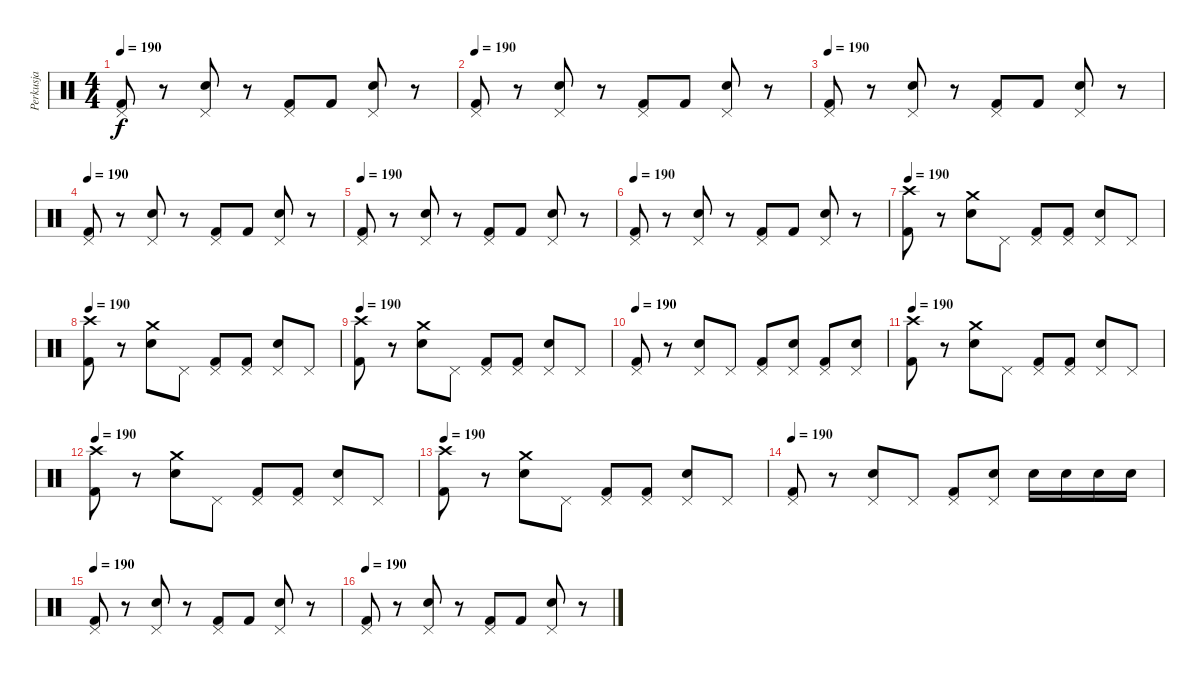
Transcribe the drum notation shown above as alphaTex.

\track ("Perkusja" "Perkusja") {instrument percussion}
\staff {score}
\articulation defaults
\ts (4 4)
\tempo 190
\clef neutral
\ks c
("Pedal Hi-Hat (hit)" "Kick (hit) 2").8{dy f} r.8 ("Pedal Hi-Hat (hit)" "Snare (hit) 2").8 r.8 ("Pedal Hi-Hat (hit)" "Kick (hit) 2").8 "Kick (hit) 2".8 ("Pedal Hi-Hat (hit)" "Snare (hit) 2").8 r.8 |
\tempo 190
("Pedal Hi-Hat (hit)" "Kick (hit) 2").8 r.8 ("Pedal Hi-Hat (hit)" "Snare (hit) 2").8 r.8 ("Pedal Hi-Hat (hit)" "Kick (hit) 2").8 "Kick (hit) 2".8 ("Pedal Hi-Hat (hit)" "Snare (hit) 2").8 r.8 |
\tempo 190
("Pedal Hi-Hat (hit)" "Kick (hit) 2").8 r.8 ("Pedal Hi-Hat (hit)" "Snare (hit) 2").8 r.8 ("Pedal Hi-Hat (hit)" "Kick (hit) 2").8 "Kick (hit) 2".8 ("Pedal Hi-Hat (hit)" "Snare (hit) 2").8 r.8 |
\tempo 190
("Pedal Hi-Hat (hit)" "Kick (hit) 2").8 r.8 ("Pedal Hi-Hat (hit)" "Snare (hit) 2").8 r.8 ("Pedal Hi-Hat (hit)" "Kick (hit) 2").8 "Kick (hit) 2".8 ("Pedal Hi-Hat (hit)" "Snare (hit) 2").8 r.8 |
\tempo 190
("Pedal Hi-Hat (hit)" "Kick (hit) 2").8 r.8 ("Pedal Hi-Hat (hit)" "Snare (hit) 2").8 r.8 ("Pedal Hi-Hat (hit)" "Kick (hit) 2").8 "Kick (hit) 2".8 ("Pedal Hi-Hat (hit)" "Snare (hit) 2").8 r.8 |
\tempo 190
("Pedal Hi-Hat (hit)" "Kick (hit) 2").8 r.8 ("Pedal Hi-Hat (hit)" "Snare (hit) 2").8 r.8 ("Pedal Hi-Hat (hit)" "Kick (hit) 2").8 "Kick (hit) 2".8 ("Pedal Hi-Hat (hit)" "Snare (hit) 2").8 r.8 |
\tempo 190
("Crash high (hit)" "Kick (hit) 2").8 r.8 ("Crash medium (hit)" "Snare (hit) 2").8 "Pedal Hi-Hat (hit)".8 ("Pedal Hi-Hat (hit)" "Kick (hit) 2").8 ("Pedal Hi-Hat (hit)" "Kick (hit) 2").8 ("Pedal Hi-Hat (hit)" "Snare (hit) 2").8 "Pedal Hi-Hat (hit)".8 |
\tempo 190
("Crash high (hit)" "Kick (hit) 2").8 r.8 ("Crash medium (hit)" "Snare (hit) 2").8 "Pedal Hi-Hat (hit)".8 ("Pedal Hi-Hat (hit)" "Kick (hit) 2").8 ("Pedal Hi-Hat (hit)" "Kick (hit) 2").8 ("Pedal Hi-Hat (hit)" "Snare (hit) 2").8 "Pedal Hi-Hat (hit)".8 |
\tempo 190
("Crash high (hit)" "Kick (hit) 2").8 r.8 ("Crash medium (hit)" "Snare (hit) 2").8 "Pedal Hi-Hat (hit)".8 ("Pedal Hi-Hat (hit)" "Kick (hit) 2").8 ("Pedal Hi-Hat (hit)" "Kick (hit) 2").8 ("Pedal Hi-Hat (hit)" "Snare (hit) 2").8 "Pedal Hi-Hat (hit)".8 |
\tempo 190
("Pedal Hi-Hat (hit)" "Kick (hit) 2").8 r.8 ("Pedal Hi-Hat (hit)" "Snare (hit) 2").8 "Pedal Hi-Hat (hit)".8 ("Pedal Hi-Hat (hit)" "Kick (hit) 2").8 ("Pedal Hi-Hat (hit)" "Snare (hit) 2").8 ("Pedal Hi-Hat (hit)" "Kick (hit) 2").8 ("Pedal Hi-Hat (hit)" "Snare (hit) 2").8 |
\tempo 190
("Crash high (hit)" "Kick (hit) 2").8 r.8 ("Crash medium (hit)" "Snare (hit) 2").8 "Pedal Hi-Hat (hit)".8 ("Pedal Hi-Hat (hit)" "Kick (hit) 2").8 ("Pedal Hi-Hat (hit)" "Kick (hit) 2").8 ("Pedal Hi-Hat (hit)" "Snare (hit) 2").8 "Pedal Hi-Hat (hit)".8 |
\tempo 190
("Crash high (hit)" "Kick (hit) 2").8 r.8 ("Crash medium (hit)" "Snare (hit) 2").8 "Pedal Hi-Hat (hit)".8 ("Pedal Hi-Hat (hit)" "Kick (hit) 2").8 ("Pedal Hi-Hat (hit)" "Kick (hit) 2").8 ("Pedal Hi-Hat (hit)" "Snare (hit) 2").8 "Pedal Hi-Hat (hit)".8 |
\tempo 190
("Crash high (hit)" "Kick (hit) 2").8 r.8 ("Crash medium (hit)" "Snare (hit) 2").8 "Pedal Hi-Hat (hit)".8 ("Pedal Hi-Hat (hit)" "Kick (hit) 2").8 ("Pedal Hi-Hat (hit)" "Kick (hit) 2").8 ("Pedal Hi-Hat (hit)" "Snare (hit) 2").8 "Pedal Hi-Hat (hit)".8 |
\tempo 190
("Pedal Hi-Hat (hit)" "Kick (hit) 2").8 r.8 ("Pedal Hi-Hat (hit)" "Snare (hit) 2").8 "Pedal Hi-Hat (hit)".8 ("Pedal Hi-Hat (hit)" "Kick (hit) 2").8 ("Pedal Hi-Hat (hit)" "Snare (hit) 2").8 "Snare (hit) 2".16 "Snare (hit) 2".16 "Snare (hit) 2".16 "Snare (hit) 2".16 |
\tempo 190
("Pedal Hi-Hat (hit)" "Kick (hit) 2").8 r.8 ("Pedal Hi-Hat (hit)" "Snare (hit) 2").8 r.8 ("Pedal Hi-Hat (hit)" "Kick (hit) 2").8 "Kick (hit) 2".8 ("Pedal Hi-Hat (hit)" "Snare (hit) 2").8 r.8 |
\tempo 190
("Pedal Hi-Hat (hit)" "Kick (hit) 2").8 r.8 ("Pedal Hi-Hat (hit)" "Snare (hit) 2").8 r.8 ("Pedal Hi-Hat (hit)" "Kick (hit) 2").8 "Kick (hit) 2".8 ("Pedal Hi-Hat (hit)" "Snare (hit) 2").8 r.8
